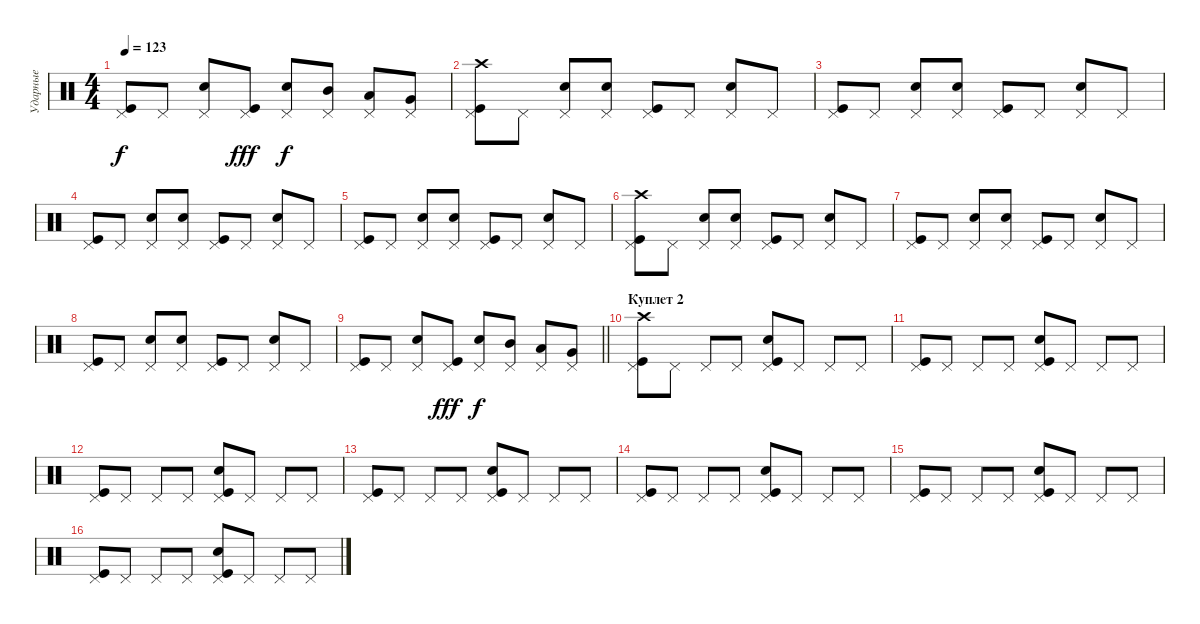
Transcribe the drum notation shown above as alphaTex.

\track ("Ударные" "Ударные") {instrument percussion}
\staff {score}
\articulation defaults
\ts (4 4)
\tempo 123
\clef neutral
\ks c
("Kick (hit)" "Pedal Hi-Hat (hit)").8{dy f} "Pedal Hi-Hat (hit)".8 ("Pedal Hi-Hat (hit)" "Snare (hit) 2").8 ("Kick (hit)" "Pedal Hi-Hat (hit)").8{dy fff} ("Pedal Hi-Hat (hit)" "Snare (hit) 2").8{dy f} ("Pedal Hi-Hat (hit)" "Mid Tom (hit)").8 ("Pedal Hi-Hat (hit)" "Low Tom (hit)").8 ("Pedal Hi-Hat (hit)" "Very Low Tom (hit)").8 |
("Kick (hit)" "Pedal Hi-Hat (hit)" "Crash high (hit)").8 "Pedal Hi-Hat (hit)".8 ("Pedal Hi-Hat (hit)" "Snare (hit) 2").8 ("Pedal Hi-Hat (hit)" "Snare (hit) 2").8 ("Kick (hit)" "Pedal Hi-Hat (hit)").8 "Pedal Hi-Hat (hit)".8 ("Pedal Hi-Hat (hit)" "Snare (hit) 2").8 "Pedal Hi-Hat (hit)".8 |
("Kick (hit)" "Pedal Hi-Hat (hit)").8 "Pedal Hi-Hat (hit)".8 ("Pedal Hi-Hat (hit)" "Snare (hit) 2").8 ("Pedal Hi-Hat (hit)" "Snare (hit) 2").8 ("Kick (hit)" "Pedal Hi-Hat (hit)").8 "Pedal Hi-Hat (hit)".8 ("Pedal Hi-Hat (hit)" "Snare (hit) 2").8 "Pedal Hi-Hat (hit)".8 |
("Kick (hit)" "Pedal Hi-Hat (hit)").8 "Pedal Hi-Hat (hit)".8 ("Pedal Hi-Hat (hit)" "Snare (hit) 2").8 ("Pedal Hi-Hat (hit)" "Snare (hit) 2").8 ("Kick (hit)" "Pedal Hi-Hat (hit)").8 "Pedal Hi-Hat (hit)".8 ("Pedal Hi-Hat (hit)" "Snare (hit) 2").8 "Pedal Hi-Hat (hit)".8 |
("Kick (hit)" "Pedal Hi-Hat (hit)").8 "Pedal Hi-Hat (hit)".8 ("Pedal Hi-Hat (hit)" "Snare (hit) 2").8 ("Pedal Hi-Hat (hit)" "Snare (hit) 2").8 ("Kick (hit)" "Pedal Hi-Hat (hit)").8 "Pedal Hi-Hat (hit)".8 ("Pedal Hi-Hat (hit)" "Snare (hit) 2").8 "Pedal Hi-Hat (hit)".8 |
("Kick (hit)" "Pedal Hi-Hat (hit)" "Crash high (hit)").8 "Pedal Hi-Hat (hit)".8 ("Pedal Hi-Hat (hit)" "Snare (hit) 2").8 ("Pedal Hi-Hat (hit)" "Snare (hit) 2").8 ("Kick (hit)" "Pedal Hi-Hat (hit)").8 "Pedal Hi-Hat (hit)".8 ("Pedal Hi-Hat (hit)" "Snare (hit) 2").8 "Pedal Hi-Hat (hit)".8 |
("Kick (hit)" "Pedal Hi-Hat (hit)").8 "Pedal Hi-Hat (hit)".8 ("Pedal Hi-Hat (hit)" "Snare (hit) 2").8 ("Pedal Hi-Hat (hit)" "Snare (hit) 2").8 ("Kick (hit)" "Pedal Hi-Hat (hit)").8 "Pedal Hi-Hat (hit)".8 ("Pedal Hi-Hat (hit)" "Snare (hit) 2").8 "Pedal Hi-Hat (hit)".8 |
("Kick (hit)" "Pedal Hi-Hat (hit)").8 "Pedal Hi-Hat (hit)".8 ("Pedal Hi-Hat (hit)" "Snare (hit) 2").8 ("Pedal Hi-Hat (hit)" "Snare (hit) 2").8 ("Kick (hit)" "Pedal Hi-Hat (hit)").8 "Pedal Hi-Hat (hit)".8 ("Pedal Hi-Hat (hit)" "Snare (hit) 2").8 "Pedal Hi-Hat (hit)".8 |
\barLineRight lightlight
("Kick (hit)" "Pedal Hi-Hat (hit)").8 "Pedal Hi-Hat (hit)".8 ("Pedal Hi-Hat (hit)" "Snare (hit) 2").8 ("Kick (hit)" "Pedal Hi-Hat (hit)").8{dy fff} ("Pedal Hi-Hat (hit)" "Snare (hit) 2").8{dy f} ("Pedal Hi-Hat (hit)" "Mid Tom (hit)").8 ("Pedal Hi-Hat (hit)" "Low Tom (hit)").8 ("Pedal Hi-Hat (hit)" "Very Low Tom (hit)").8 |
\section ("" "Куплет 2")
("Kick (hit)" "Pedal Hi-Hat (hit)" "Crash high (hit)").8 "Pedal Hi-Hat (hit)".8 "Pedal Hi-Hat (hit)".8 "Pedal Hi-Hat (hit)".8 ("Kick (hit)" "Pedal Hi-Hat (hit)" "Snare (hit) 2").8 "Pedal Hi-Hat (hit)".8 "Pedal Hi-Hat (hit)".8 "Pedal Hi-Hat (hit)".8 |
("Kick (hit)" "Pedal Hi-Hat (hit)").8 "Pedal Hi-Hat (hit)".8 "Pedal Hi-Hat (hit)".8 "Pedal Hi-Hat (hit)".8 ("Kick (hit)" "Pedal Hi-Hat (hit)" "Snare (hit) 2").8 "Pedal Hi-Hat (hit)".8 "Pedal Hi-Hat (hit)".8 "Pedal Hi-Hat (hit)".8 |
("Kick (hit)" "Pedal Hi-Hat (hit)").8 "Pedal Hi-Hat (hit)".8 "Pedal Hi-Hat (hit)".8 "Pedal Hi-Hat (hit)".8 ("Kick (hit)" "Pedal Hi-Hat (hit)" "Snare (hit) 2").8 "Pedal Hi-Hat (hit)".8 "Pedal Hi-Hat (hit)".8 "Pedal Hi-Hat (hit)".8 |
("Kick (hit)" "Pedal Hi-Hat (hit)").8 "Pedal Hi-Hat (hit)".8 "Pedal Hi-Hat (hit)".8 "Pedal Hi-Hat (hit)".8 ("Kick (hit)" "Pedal Hi-Hat (hit)" "Snare (hit) 2").8 "Pedal Hi-Hat (hit)".8 "Pedal Hi-Hat (hit)".8 "Pedal Hi-Hat (hit)".8 |
("Kick (hit)" "Pedal Hi-Hat (hit)").8 "Pedal Hi-Hat (hit)".8 "Pedal Hi-Hat (hit)".8 "Pedal Hi-Hat (hit)".8 ("Kick (hit)" "Pedal Hi-Hat (hit)" "Snare (hit) 2").8 "Pedal Hi-Hat (hit)".8 "Pedal Hi-Hat (hit)".8 "Pedal Hi-Hat (hit)".8 |
("Kick (hit)" "Pedal Hi-Hat (hit)").8 "Pedal Hi-Hat (hit)".8 "Pedal Hi-Hat (hit)".8 "Pedal Hi-Hat (hit)".8 ("Kick (hit)" "Pedal Hi-Hat (hit)" "Snare (hit) 2").8 "Pedal Hi-Hat (hit)".8 "Pedal Hi-Hat (hit)".8 "Pedal Hi-Hat (hit)".8 |
("Kick (hit)" "Pedal Hi-Hat (hit)").8 "Pedal Hi-Hat (hit)".8 "Pedal Hi-Hat (hit)".8 "Pedal Hi-Hat (hit)".8 ("Kick (hit)" "Pedal Hi-Hat (hit)" "Snare (hit) 2").8 "Pedal Hi-Hat (hit)".8 "Pedal Hi-Hat (hit)".8 "Pedal Hi-Hat (hit)".8
